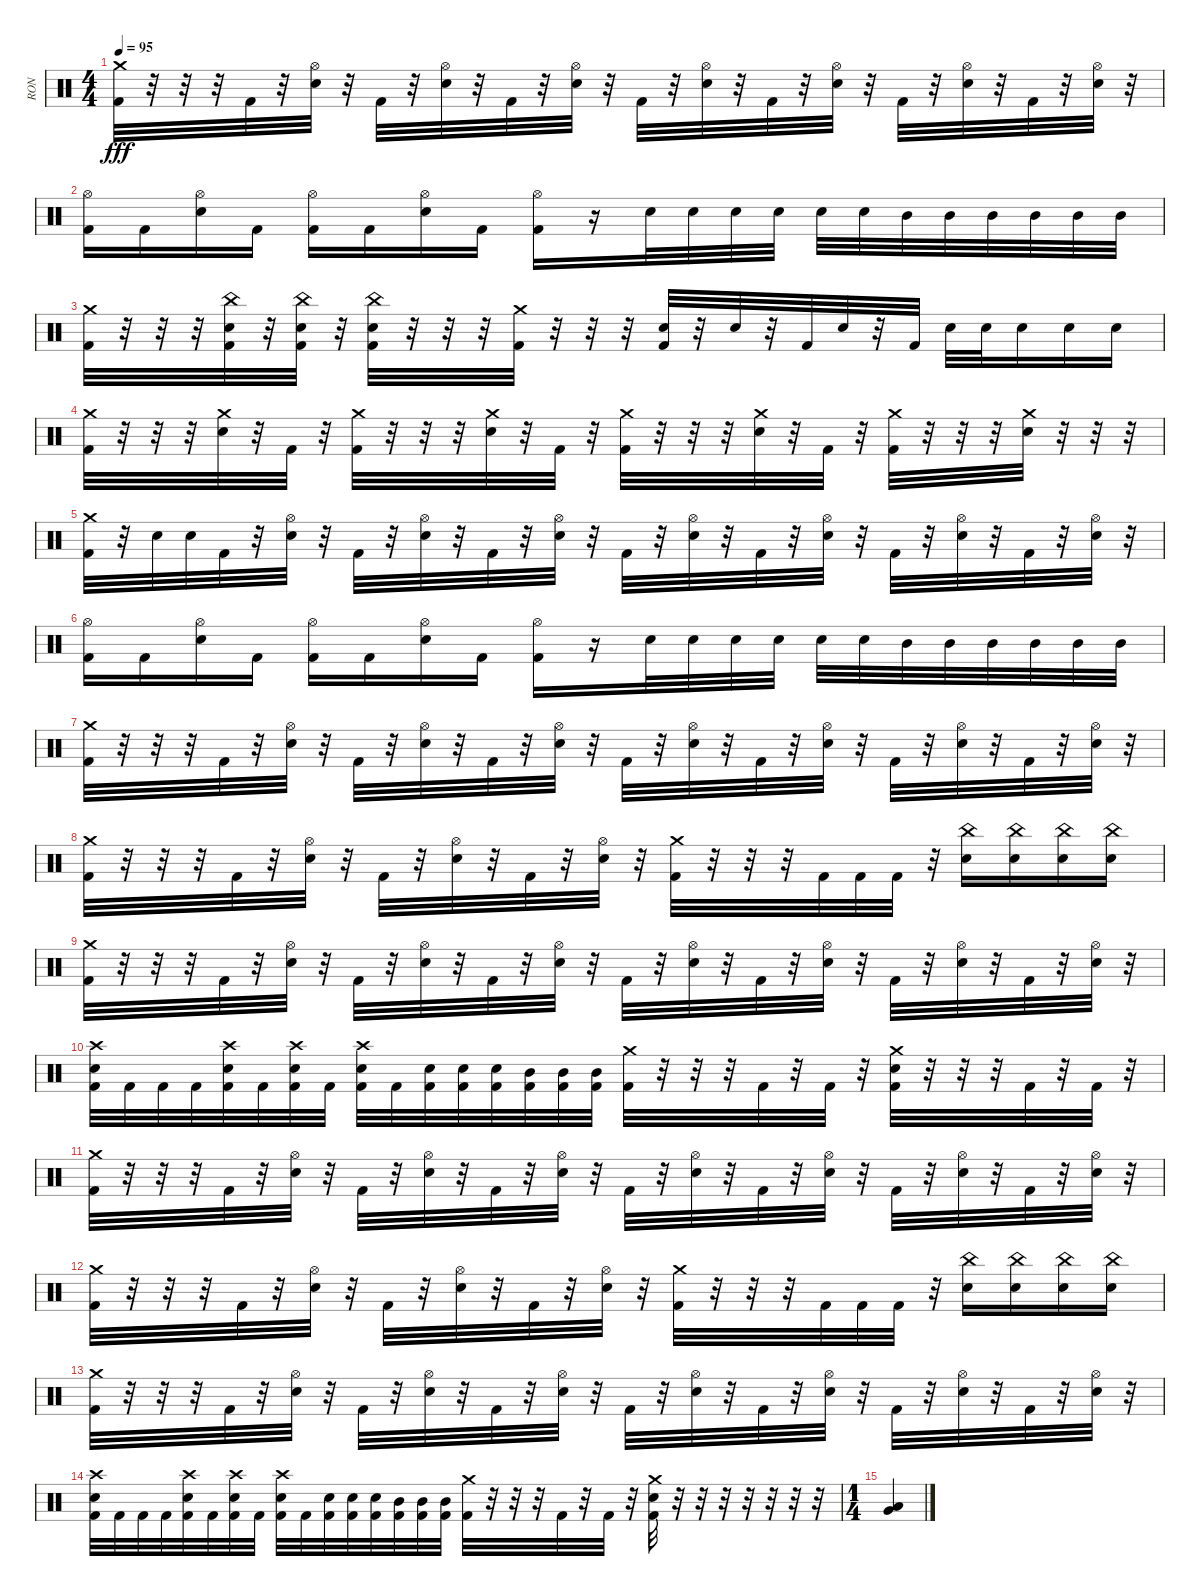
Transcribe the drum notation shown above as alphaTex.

\track ("RON" "RON") {instrument percussion}
\staff {score}
\articulation defaults
\ts (4 4)
\tempo 95
\clef neutral
\ks c
("Crash medium (hit)" "Kick (hit) 2").32{dy fff} r.32 r.32 r.32 "Kick (hit) 2".32 r.32 ("Hi-Hat (open)" "Electric Snare (hit)").32 r.32 "Kick (hit) 2".32 r.32 ("Hi-Hat (open)" "Electric Snare (hit)").32 r.32 "Kick (hit) 2".32 r.32 ("Hi-Hat (open)" "Electric Snare (hit)").32 r.32 "Kick (hit) 2".32 r.32 ("Hi-Hat (open)" "Electric Snare (hit)").32 r.32 "Kick (hit) 2".32 r.32 ("Hi-Hat (open)" "Electric Snare (hit)").32 r.32 "Kick (hit) 2".32 r.32 ("Hi-Hat (open)" "Electric Snare (hit)").32 r.32 "Kick (hit) 2".32 r.32 ("Hi-Hat (open)" "Electric Snare (hit)").32 r.32 |
("Hi-Hat (open)" "Kick (hit) 2").16 "Kick (hit) 2".16 ("Hi-Hat (open)" "Electric Snare (hit)").16 "Kick (hit) 2".16 ("Hi-Hat (open)" "Kick (hit) 2").16 "Kick (hit) 2".16 ("Hi-Hat (open)" "Electric Snare (hit)").16 "Kick (hit) 2".16 ("Hi-Hat (open)" "Kick (hit) 2").16 r.16 "Electric Snare (hit)".32 "Electric Snare (hit)".32 "Electric Snare (hit)".32 "Electric Snare (hit)".32 "Electric Snare (hit)".32 "Electric Snare (hit)".32 "Mid Tom (hit)".32 "Mid Tom (hit)".32 "Mid Tom (hit)".32 "Mid Tom (hit)".32 "Mid Tom (hit)".32 "Mid Tom (hit)".32 |
("Crash medium (hit)" "Kick (hit) 2").32 r.32 r.32 r.32 ("China (hit)" "Electric Snare (hit)" "Kick (hit) 2").32 r.32 ("China (hit)" "Electric Snare (hit)" "Kick (hit) 2").32 r.32 ("China (hit)" "Electric Snare (hit)" "Kick (hit) 2").32 r.32 r.32 r.32 ("Crash medium (hit)" "Kick (hit) 2").32 r.32 r.32 r.32 ("Electric Snare (hit)" "Kick (hit) 2").32 r.32 "Electric Snare (hit)".32 r.32 "Kick (hit) 2".32 "Electric Snare (hit)".32 r.32 "Kick (hit) 2".32 "Electric Snare (hit)".32 "Electric Snare (hit)".32 "Electric Snare (hit)".16 "Electric Snare (hit)".16 "Electric Snare (hit)".16 |
("Crash medium (hit)" "Kick (hit) 2").32 r.32 r.32 r.32 ("Crash medium (hit)" "Electric Snare (hit)").32 r.32 "Kick (hit) 2".32 r.32 ("Crash medium (hit)" "Kick (hit) 2").32 r.32 r.32 r.32 ("Crash medium (hit)" "Electric Snare (hit)").32 r.32 "Kick (hit) 2".32 r.32 ("Crash medium (hit)" "Kick (hit) 2").32 r.32 r.32 r.32 ("Crash medium (hit)" "Electric Snare (hit)").32 r.32 "Kick (hit) 2".32 r.32 ("Crash medium (hit)" "Kick (hit) 2").32 r.32 r.32 r.32 ("Crash medium (hit)" "Electric Snare (hit)").32 r.32 r.32 r.32 |
("Crash medium (hit)" "Kick (hit) 2").32 r.32 "Electric Snare (hit)".32 "Electric Snare (hit)".32 "Kick (hit) 2".32 r.32 ("Hi-Hat (open)" "Electric Snare (hit)").32 r.32 "Kick (hit) 2".32 r.32 ("Hi-Hat (open)" "Electric Snare (hit)").32 r.32 "Kick (hit) 2".32 r.32 ("Hi-Hat (open)" "Electric Snare (hit)").32 r.32 "Kick (hit) 2".32 r.32 ("Hi-Hat (open)" "Electric Snare (hit)").32 r.32 "Kick (hit) 2".32 r.32 ("Hi-Hat (open)" "Electric Snare (hit)").32 r.32 "Kick (hit) 2".32 r.32 ("Hi-Hat (open)" "Electric Snare (hit)").32 r.32 "Kick (hit) 2".32 r.32 ("Hi-Hat (open)" "Electric Snare (hit)").32 r.32 |
("Hi-Hat (open)" "Kick (hit) 2").16 "Kick (hit) 2".16 ("Hi-Hat (open)" "Electric Snare (hit)").16 "Kick (hit) 2".16 ("Hi-Hat (open)" "Kick (hit) 2").16 "Kick (hit) 2".16 ("Hi-Hat (open)" "Electric Snare (hit)").16 "Kick (hit) 2".16 ("Hi-Hat (open)" "Kick (hit) 2").16 r.16 "Electric Snare (hit)".32 "Electric Snare (hit)".32 "Electric Snare (hit)".32 "Electric Snare (hit)".32 "Electric Snare (hit)".32 "Electric Snare (hit)".32 "Mid Tom (hit)".32 "Mid Tom (hit)".32 "Mid Tom (hit)".32 "Mid Tom (hit)".32 "Mid Tom (hit)".32 "Mid Tom (hit)".32 |
("Crash medium (hit)" "Kick (hit) 2").32 r.32 r.32 r.32 "Kick (hit) 2".32 r.32 ("Hi-Hat (open)" "Electric Snare (hit)").32 r.32 "Kick (hit) 2".32 r.32 ("Hi-Hat (open)" "Electric Snare (hit)").32 r.32 "Kick (hit) 2".32 r.32 ("Hi-Hat (open)" "Electric Snare (hit)").32 r.32 "Kick (hit) 2".32 r.32 ("Hi-Hat (open)" "Electric Snare (hit)").32 r.32 "Kick (hit) 2".32 r.32 ("Hi-Hat (open)" "Electric Snare (hit)").32 r.32 "Kick (hit) 2".32 r.32 ("Hi-Hat (open)" "Electric Snare (hit)").32 r.32 "Kick (hit) 2".32 r.32 ("Hi-Hat (open)" "Electric Snare (hit)").32 r.32 |
("Crash medium (hit)" "Kick (hit) 2").32 r.32 r.32 r.32 "Kick (hit) 2".32 r.32 ("Hi-Hat (open)" "Electric Snare (hit)").32 r.32 "Kick (hit) 2".32 r.32 ("Hi-Hat (open)" "Electric Snare (hit)").32 r.32 "Kick (hit) 2".32 r.32 ("Hi-Hat (open)" "Electric Snare (hit)").32 r.32 ("Crash medium (hit)" "Kick (hit) 2").32 r.32 r.32 r.32 "Kick (hit) 2".32 "Kick (hit) 2".32 "Kick (hit) 2".32 r.32 ("China (hit)" "Electric Snare (hit)").16 ("China (hit)" "Electric Snare (hit)").16 ("China (hit)" "Electric Snare (hit)").16 ("China (hit)" "Electric Snare (hit)").16 |
("Crash medium (hit)" "Kick (hit) 2").32 r.32 r.32 r.32 "Kick (hit) 2".32 r.32 ("Hi-Hat (open)" "Electric Snare (hit)").32 r.32 "Kick (hit) 2".32 r.32 ("Hi-Hat (open)" "Electric Snare (hit)").32 r.32 "Kick (hit) 2".32 r.32 ("Hi-Hat (open)" "Electric Snare (hit)").32 r.32 "Kick (hit) 2".32 r.32 ("Hi-Hat (open)" "Electric Snare (hit)").32 r.32 "Kick (hit) 2".32 r.32 ("Hi-Hat (open)" "Electric Snare (hit)").32 r.32 "Kick (hit) 2".32 r.32 ("Hi-Hat (open)" "Electric Snare (hit)").32 r.32 "Kick (hit) 2".32 r.32 ("Hi-Hat (open)" "Electric Snare (hit)").32 r.32 |
("Crash high (hit)" "Electric Snare (hit)" "Kick (hit) 2").32 "Kick (hit) 2".32 "Kick (hit) 2".32 "Kick (hit) 2".32 ("Crash high (hit)" "Electric Snare (hit)" "Kick (hit) 2").32 "Kick (hit) 2".32 ("Crash high (hit)" "Electric Snare (hit)" "Kick (hit) 2").32 "Kick (hit) 2".32 ("Crash high (hit)" "Electric Snare (hit)" "Kick (hit) 2").32 "Kick (hit) 2".32 ("Electric Snare (hit)" "Kick (hit) 2").32 ("Electric Snare (hit)" "Kick (hit) 2").32 ("Electric Snare (hit)" "Kick (hit) 2").32 ("Mid Tom (hit)" "Kick (hit) 2").32 ("Mid Tom (hit)" "Kick (hit) 2").32 ("Mid Tom (hit)" "Kick (hit) 2").32 ("Crash medium (hit)" "Kick (hit) 2").32 r.32 r.32 r.32 "Kick (hit) 2".32 r.32 "Kick (hit) 2".32 r.32 ("Crash medium (hit)" "Electric Snare (hit)" "Kick (hit) 2").32 r.32 r.32 r.32 "Kick (hit) 2".32 r.32 "Kick (hit) 2".32 r.32 |
("Crash medium (hit)" "Kick (hit) 2").32 r.32 r.32 r.32 "Kick (hit) 2".32 r.32 ("Hi-Hat (open)" "Electric Snare (hit)").32 r.32 "Kick (hit) 2".32 r.32 ("Hi-Hat (open)" "Electric Snare (hit)").32 r.32 "Kick (hit) 2".32 r.32 ("Hi-Hat (open)" "Electric Snare (hit)").32 r.32 "Kick (hit) 2".32 r.32 ("Hi-Hat (open)" "Electric Snare (hit)").32 r.32 "Kick (hit) 2".32 r.32 ("Hi-Hat (open)" "Electric Snare (hit)").32 r.32 "Kick (hit) 2".32 r.32 ("Hi-Hat (open)" "Electric Snare (hit)").32 r.32 "Kick (hit) 2".32 r.32 ("Hi-Hat (open)" "Electric Snare (hit)").32 r.32 |
("Crash medium (hit)" "Kick (hit) 2").32 r.32 r.32 r.32 "Kick (hit) 2".32 r.32 ("Hi-Hat (open)" "Electric Snare (hit)").32 r.32 "Kick (hit) 2".32 r.32 ("Hi-Hat (open)" "Electric Snare (hit)").32 r.32 "Kick (hit) 2".32 r.32 ("Hi-Hat (open)" "Electric Snare (hit)").32 r.32 ("Crash medium (hit)" "Kick (hit) 2").32 r.32 r.32 r.32 "Kick (hit) 2".32 "Kick (hit) 2".32 "Kick (hit) 2".32 r.32 ("China (hit)" "Electric Snare (hit)").16 ("China (hit)" "Electric Snare (hit)").16 ("China (hit)" "Electric Snare (hit)").16 ("China (hit)" "Electric Snare (hit)").16 |
("Crash medium (hit)" "Kick (hit) 2").32 r.32 r.32 r.32 "Kick (hit) 2".32 r.32 ("Hi-Hat (open)" "Electric Snare (hit)").32 r.32 "Kick (hit) 2".32 r.32 ("Hi-Hat (open)" "Electric Snare (hit)").32 r.32 "Kick (hit) 2".32 r.32 ("Hi-Hat (open)" "Electric Snare (hit)").32 r.32 "Kick (hit) 2".32 r.32 ("Hi-Hat (open)" "Electric Snare (hit)").32 r.32 "Kick (hit) 2".32 r.32 ("Hi-Hat (open)" "Electric Snare (hit)").32 r.32 "Kick (hit) 2".32 r.32 ("Hi-Hat (open)" "Electric Snare (hit)").32 r.32 "Kick (hit) 2".32 r.32 ("Hi-Hat (open)" "Electric Snare (hit)").32 r.32 |
("Crash high (hit)" "Electric Snare (hit)" "Kick (hit) 2").32 "Kick (hit) 2".32 "Kick (hit) 2".32 "Kick (hit) 2".32 ("Crash high (hit)" "Electric Snare (hit)" "Kick (hit) 2").32 "Kick (hit) 2".32 ("Crash high (hit)" "Electric Snare (hit)" "Kick (hit) 2").32 "Kick (hit) 2".32 ("Crash high (hit)" "Electric Snare (hit)" "Kick (hit) 2").32 "Kick (hit) 2".32 ("Electric Snare (hit)" "Kick (hit) 2").32 ("Electric Snare (hit)" "Kick (hit) 2").32 ("Electric Snare (hit)" "Kick (hit) 2").32 ("Mid Tom (hit)" "Kick (hit) 2").32 ("Mid Tom (hit)" "Kick (hit) 2").32 ("Mid Tom (hit)" "Kick (hit) 2").32 ("Crash medium (hit)" "Kick (hit) 2").32 r.32 r.32 r.32 "Kick (hit) 2".32 r.32 "Kick (hit) 2".32 r.32 ("Crash medium (hit)" "Electric Snare (hit)" "Kick (hit) 2").32 r.32 r.32 r.32 r.32 r.32 r.32 r.32 |
\ts (1 4)
("Low Tom (hit)" "Very Low Tom (hit)").4
